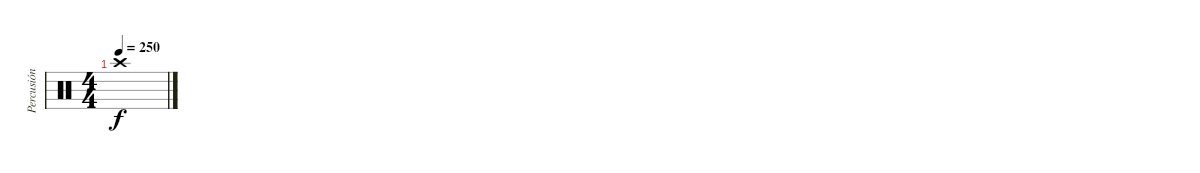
\track ("Percusión" "Percusión") {instrument percussion}
\staff {score}
\articulation defaults
\ts (4 4)
\tempo 250
\clef neutral
\ks c "Crash high (hit)".1{dy f}
